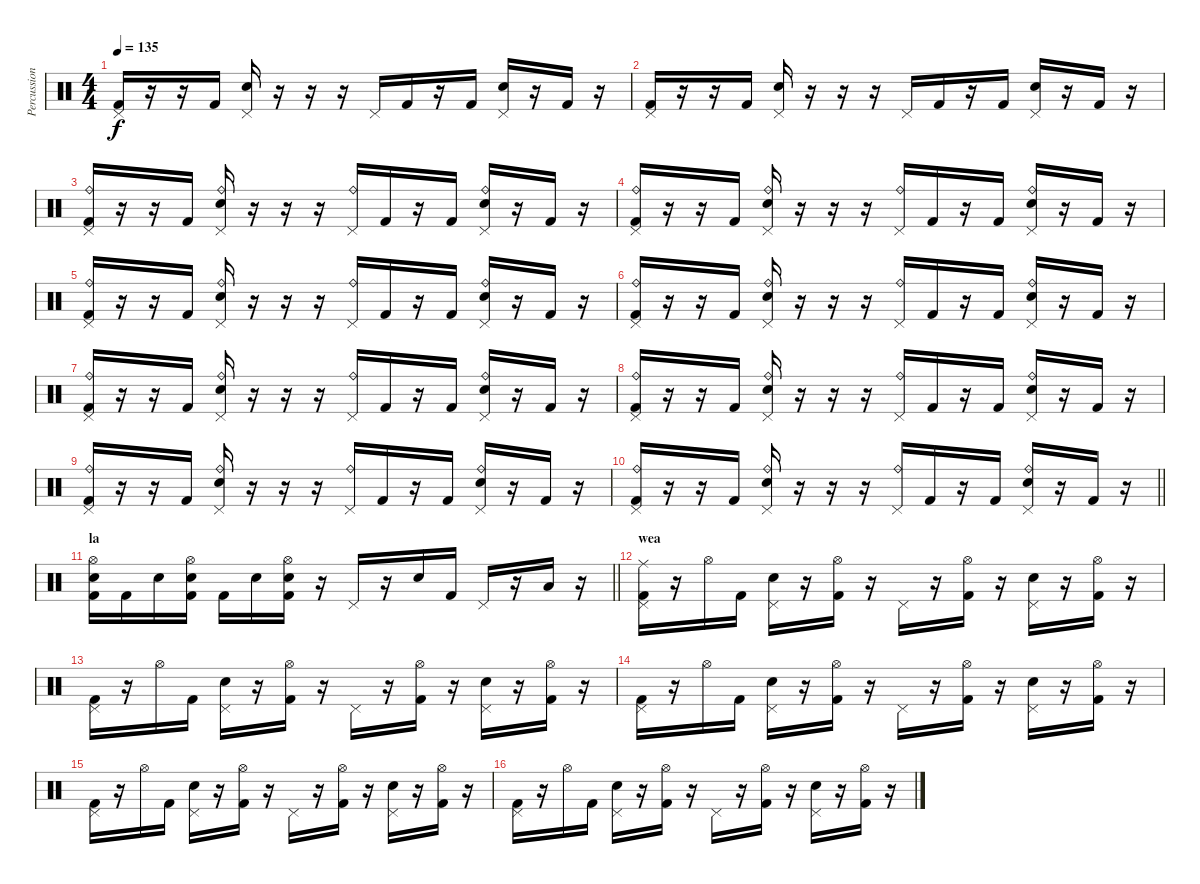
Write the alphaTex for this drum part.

\track ("Percussion" "Percussion") {instrument percussion}
\staff {score}
\articulation defaults
\ts (4 4)
\tempo 135
\clef neutral
\ks c
("Pedal Hi-Hat (hit)" "Kick (hit) 2").16{dy f} r.16 r.16 "Kick (hit) 2".16 ("Electric Snare (hit)" "Pedal Hi-Hat (hit)").16 r.16 r.16 r.16 "Pedal Hi-Hat (hit)".16 "Kick (hit) 2".16 r.16 "Kick (hit) 2".16 ("Electric Snare (hit)" "Pedal Hi-Hat (hit)").16 r.16 "Kick (hit) 2".16 r.16 |
("Pedal Hi-Hat (hit)" "Kick (hit) 2").16 r.16 r.16 "Kick (hit) 2".16 ("Electric Snare (hit)" "Pedal Hi-Hat (hit)").16 r.16 r.16 r.16 "Pedal Hi-Hat (hit)".16 "Kick (hit) 2".16 r.16 "Kick (hit) 2".16 ("Electric Snare (hit)" "Pedal Hi-Hat (hit)").16 r.16 "Kick (hit) 2".16 r.16 |
("Ride (bell)" "Pedal Hi-Hat (hit)" "Kick (hit) 2").16 r.16 r.16 "Kick (hit) 2".16 ("Ride (bell)" "Electric Snare (hit)" "Pedal Hi-Hat (hit)").16 r.16 r.16 r.16 ("Ride (bell)" "Pedal Hi-Hat (hit)").16 "Kick (hit) 2".16 r.16 "Kick (hit) 2".16 ("Ride (bell)" "Electric Snare (hit)" "Pedal Hi-Hat (hit)").16 r.16 "Kick (hit) 2".16 r.16 |
("Ride (bell)" "Pedal Hi-Hat (hit)" "Kick (hit) 2").16 r.16 r.16 "Kick (hit) 2".16 ("Ride (bell)" "Electric Snare (hit)" "Pedal Hi-Hat (hit)").16 r.16 r.16 r.16 ("Ride (bell)" "Pedal Hi-Hat (hit)").16 "Kick (hit) 2".16 r.16 "Kick (hit) 2".16 ("Ride (bell)" "Electric Snare (hit)" "Pedal Hi-Hat (hit)").16 r.16 "Kick (hit) 2".16 r.16 |
("Ride (bell)" "Pedal Hi-Hat (hit)" "Kick (hit) 2").16 r.16 r.16 "Kick (hit) 2".16 ("Ride (bell)" "Electric Snare (hit)" "Pedal Hi-Hat (hit)").16 r.16 r.16 r.16 ("Ride (bell)" "Pedal Hi-Hat (hit)").16 "Kick (hit) 2".16 r.16 "Kick (hit) 2".16 ("Ride (bell)" "Electric Snare (hit)" "Pedal Hi-Hat (hit)").16 r.16 "Kick (hit) 2".16 r.16 |
("Ride (bell)" "Pedal Hi-Hat (hit)" "Kick (hit) 2").16 r.16 r.16 "Kick (hit) 2".16 ("Ride (bell)" "Electric Snare (hit)" "Pedal Hi-Hat (hit)").16 r.16 r.16 r.16 ("Ride (bell)" "Pedal Hi-Hat (hit)").16 "Kick (hit) 2".16 r.16 "Kick (hit) 2".16 ("Ride (bell)" "Electric Snare (hit)" "Pedal Hi-Hat (hit)").16 r.16 "Kick (hit) 2".16 r.16 |
("Ride (bell)" "Pedal Hi-Hat (hit)" "Kick (hit) 2").16 r.16 r.16 "Kick (hit) 2".16 ("Ride (bell)" "Electric Snare (hit)" "Pedal Hi-Hat (hit)").16 r.16 r.16 r.16 ("Ride (bell)" "Pedal Hi-Hat (hit)").16 "Kick (hit) 2".16 r.16 "Kick (hit) 2".16 ("Ride (bell)" "Electric Snare (hit)" "Pedal Hi-Hat (hit)").16 r.16 "Kick (hit) 2".16 r.16 |
("Ride (bell)" "Pedal Hi-Hat (hit)" "Kick (hit) 2").16 r.16 r.16 "Kick (hit) 2".16 ("Ride (bell)" "Electric Snare (hit)" "Pedal Hi-Hat (hit)").16 r.16 r.16 r.16 ("Ride (bell)" "Pedal Hi-Hat (hit)").16 "Kick (hit) 2".16 r.16 "Kick (hit) 2".16 ("Ride (bell)" "Electric Snare (hit)" "Pedal Hi-Hat (hit)").16 r.16 "Kick (hit) 2".16 r.16 |
("Ride (bell)" "Pedal Hi-Hat (hit)" "Kick (hit) 2").16 r.16 r.16 "Kick (hit) 2".16 ("Ride (bell)" "Electric Snare (hit)" "Pedal Hi-Hat (hit)").16 r.16 r.16 r.16 ("Ride (bell)" "Pedal Hi-Hat (hit)").16 "Kick (hit) 2".16 r.16 "Kick (hit) 2".16 ("Ride (bell)" "Electric Snare (hit)" "Pedal Hi-Hat (hit)").16 r.16 "Kick (hit) 2".16 r.16 |
\barLineRight lightlight
("Ride (bell)" "Pedal Hi-Hat (hit)" "Kick (hit) 2").16 r.16 r.16 "Kick (hit) 2".16 ("Ride (bell)" "Electric Snare (hit)" "Pedal Hi-Hat (hit)").16 r.16 r.16 r.16 ("Ride (bell)" "Pedal Hi-Hat (hit)").16 "Kick (hit) 2".16 r.16 "Kick (hit) 2".16 ("Ride (bell)" "Electric Snare (hit)" "Pedal Hi-Hat (hit)").16 r.16 "Kick (hit) 2".16 r.16 |
\section ("" "la")
\barLineRight lightlight
("Hi-Hat (open)" "Electric Snare (hit)" "Kick (hit) 2").16 "Kick (hit) 2".16 "Electric Snare (hit)".16 ("Hi-Hat (open)" "Electric Snare (hit)" "Kick (hit) 2").16 "Kick (hit) 2".16 "Electric Snare (hit)".16 ("Hi-Hat (open)" "Electric Snare (hit)" "Kick (hit) 2").16 r.16 "Pedal Hi-Hat (hit)".16 r.16 "Electric Snare (hit)".16 "Kick (hit) 2".16 "Pedal Hi-Hat (hit)".16 r.16 "Low Tom (hit)".16 r.16 |
\section ("" "wea")
("Ride (middle)" "Pedal Hi-Hat (hit)" "Kick (hit) 2").16 r.16 "Hi-Hat (open)".16 "Kick (hit) 2".16 ("Electric Snare (hit)" "Pedal Hi-Hat (hit)").16 r.16 ("Hi-Hat (open)" "Kick (hit) 2").16 r.16 "Pedal Hi-Hat (hit)".16 r.16 ("Hi-Hat (open)" "Kick (hit) 2").16 r.16 ("Electric Snare (hit)" "Pedal Hi-Hat (hit)").16 r.16 ("Hi-Hat (open)" "Kick (hit) 2").16 r.16 |
("Pedal Hi-Hat (hit)" "Kick (hit) 2").16 r.16 "Hi-Hat (open)".16 "Kick (hit) 2".16 ("Electric Snare (hit)" "Pedal Hi-Hat (hit)").16 r.16 ("Hi-Hat (open)" "Kick (hit) 2").16 r.16 "Pedal Hi-Hat (hit)".16 r.16 ("Hi-Hat (open)" "Kick (hit) 2").16 r.16 ("Electric Snare (hit)" "Pedal Hi-Hat (hit)").16 r.16 ("Hi-Hat (open)" "Kick (hit) 2").16 r.16 |
("Pedal Hi-Hat (hit)" "Kick (hit) 2").16 r.16 "Hi-Hat (open)".16 "Kick (hit) 2".16 ("Electric Snare (hit)" "Pedal Hi-Hat (hit)").16 r.16 ("Hi-Hat (open)" "Kick (hit) 2").16 r.16 "Pedal Hi-Hat (hit)".16 r.16 ("Hi-Hat (open)" "Kick (hit) 2").16 r.16 ("Electric Snare (hit)" "Pedal Hi-Hat (hit)").16 r.16 ("Hi-Hat (open)" "Kick (hit) 2").16 r.16 |
("Pedal Hi-Hat (hit)" "Kick (hit) 2").16 r.16 "Hi-Hat (open)".16 "Kick (hit) 2".16 ("Electric Snare (hit)" "Pedal Hi-Hat (hit)").16 r.16 ("Hi-Hat (open)" "Kick (hit) 2").16 r.16 "Pedal Hi-Hat (hit)".16 r.16 ("Hi-Hat (open)" "Kick (hit) 2").16 r.16 ("Electric Snare (hit)" "Pedal Hi-Hat (hit)").16 r.16 ("Hi-Hat (open)" "Kick (hit) 2").16 r.16 |
("Pedal Hi-Hat (hit)" "Kick (hit) 2").16 r.16 "Hi-Hat (open)".16 "Kick (hit) 2".16 ("Electric Snare (hit)" "Pedal Hi-Hat (hit)").16 r.16 ("Hi-Hat (open)" "Kick (hit) 2").16 r.16 "Pedal Hi-Hat (hit)".16 r.16 ("Hi-Hat (open)" "Kick (hit) 2").16 r.16 ("Electric Snare (hit)" "Pedal Hi-Hat (hit)").16 r.16 ("Hi-Hat (open)" "Kick (hit) 2").16 r.16
